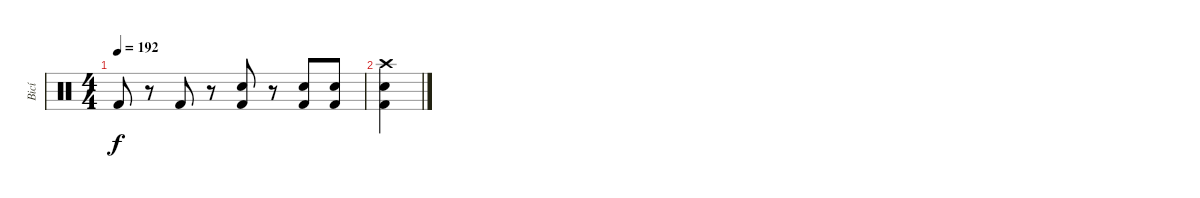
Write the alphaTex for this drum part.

\track ("Bicí" "Bicí") {instrument percussion}
\staff {score}
\articulation defaults
\ts (4 4)
\tempo 192
\clef neutral
\ks c "Kick (hit) 2".8{dy f}
r.8 "Kick (hit) 2".8 r.8 ("Electric Snare (hit)" "Kick (hit) 2").8 r.8 ("Electric Snare (hit)" "Kick (hit) 2").8 ("Electric Snare (hit)" "Kick (hit) 2").8 |
("Crash high (hit)" "Electric Snare (hit)" "Kick (hit) 2").4
